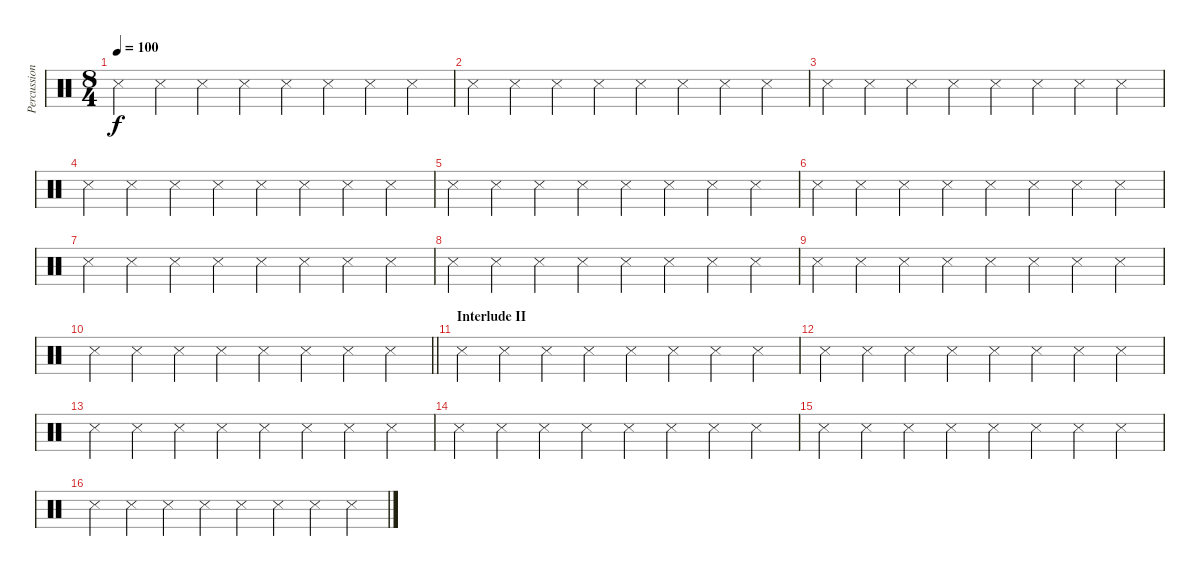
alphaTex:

\track ("Percussion" "Percussion") {mute instrument percussion}
\staff {score}
\articulation defaults
\ts (8 4)
\tempo 100
\clef neutral
\ks c "Metronome (hit)".4{dy f} "Snare (side stick) 3".4 "Snare (side stick) 3".4 "Snare (side stick) 3".4 "Metronome (hit)".4 "Snare (side stick) 3".4 "Snare (side stick) 3".4 "Snare (side stick) 3".4
|
"Metronome (hit)".4 "Snare (side stick) 3".4 "Snare (side stick) 3".4 "Snare (side stick) 3".4 "Metronome (hit)".4 "Snare (side stick) 3".4 "Snare (side stick) 3".4 "Snare (side stick) 3".4 |
"Metronome (hit)".4 "Snare (side stick) 3".4 "Snare (side stick) 3".4 "Snare (side stick) 3".4 "Metronome (hit)".4 "Snare (side stick) 3".4 "Snare (side stick) 3".4 "Snare (side stick) 3".4 |
"Metronome (hit)".4 "Snare (side stick) 3".4 "Snare (side stick) 3".4 "Snare (side stick) 3".4 "Metronome (hit)".4 "Snare (side stick) 3".4 "Snare (side stick) 3".4 "Snare (side stick) 3".4 |
"Metronome (hit)".4 "Snare (side stick) 3".4 "Snare (side stick) 3".4 "Snare (side stick) 3".4 "Metronome (hit)".4 "Snare (side stick) 3".4 "Snare (side stick) 3".4 "Snare (side stick) 3".4 |
"Metronome (hit)".4 "Snare (side stick) 3".4 "Snare (side stick) 3".4 "Snare (side stick) 3".4 "Metronome (hit)".4 "Snare (side stick) 3".4 "Snare (side stick) 3".4 "Snare (side stick) 3".4 |
"Metronome (hit)".4 "Snare (side stick) 3".4 "Snare (side stick) 3".4 "Snare (side stick) 3".4 "Metronome (hit)".4 "Snare (side stick) 3".4 "Snare (side stick) 3".4 "Snare (side stick) 3".4 |
"Metronome (hit)".4 "Snare (side stick) 3".4 "Snare (side stick) 3".4 "Snare (side stick) 3".4 "Metronome (hit)".4 "Snare (side stick) 3".4 "Snare (side stick) 3".4 "Snare (side stick) 3".4 |
"Metronome (hit)".4 "Snare (side stick) 3".4 "Snare (side stick) 3".4 "Snare (side stick) 3".4 "Metronome (hit)".4 "Snare (side stick) 3".4 "Snare (side stick) 3".4 "Snare (side stick) 3".4 |
\barLineRight lightlight "Metronome (hit)".4 "Snare (side stick) 3".4 "Snare (side stick) 3".4 "Snare (side stick) 3".4 "Metronome (hit)".4 "Snare (side stick) 3".4 "Snare (side stick) 3".4 "Snare (side stick) 3".4
|
\section ("" "Interlude II")
"Metronome (hit)".4 "Snare (side stick) 3".4 "Snare (side stick) 3".4 "Snare (side stick) 3".4 "Metronome (hit)".4 "Snare (side stick) 3".4 "Snare (side stick) 3".4 "Snare (side stick) 3".4 |
"Metronome (hit)".4 "Snare (side stick) 3".4 "Snare (side stick) 3".4 "Snare (side stick) 3".4 "Metronome (hit)".4 "Snare (side stick) 3".4 "Snare (side stick) 3".4 "Snare (side stick) 3".4 |
"Metronome (hit)".4 "Snare (side stick) 3".4 "Snare (side stick) 3".4 "Snare (side stick) 3".4 "Metronome (hit)".4 "Snare (side stick) 3".4 "Snare (side stick) 3".4 "Snare (side stick) 3".4 |
"Metronome (hit)".4 "Snare (side stick) 3".4 "Snare (side stick) 3".4 "Snare (side stick) 3".4 "Metronome (hit)".4 "Snare (side stick) 3".4 "Snare (side stick) 3".4 "Snare (side stick) 3".4 |
"Metronome (hit)".4 "Snare (side stick) 3".4 "Snare (side stick) 3".4 "Snare (side stick) 3".4 "Metronome (hit)".4 "Snare (side stick) 3".4 "Snare (side stick) 3".4 "Snare (side stick) 3".4 |
"Metronome (hit)".4 "Snare (side stick) 3".4 "Snare (side stick) 3".4 "Snare (side stick) 3".4 "Metronome (hit)".4 "Snare (side stick) 3".4 "Snare (side stick) 3".4 "Snare (side stick) 3".4
